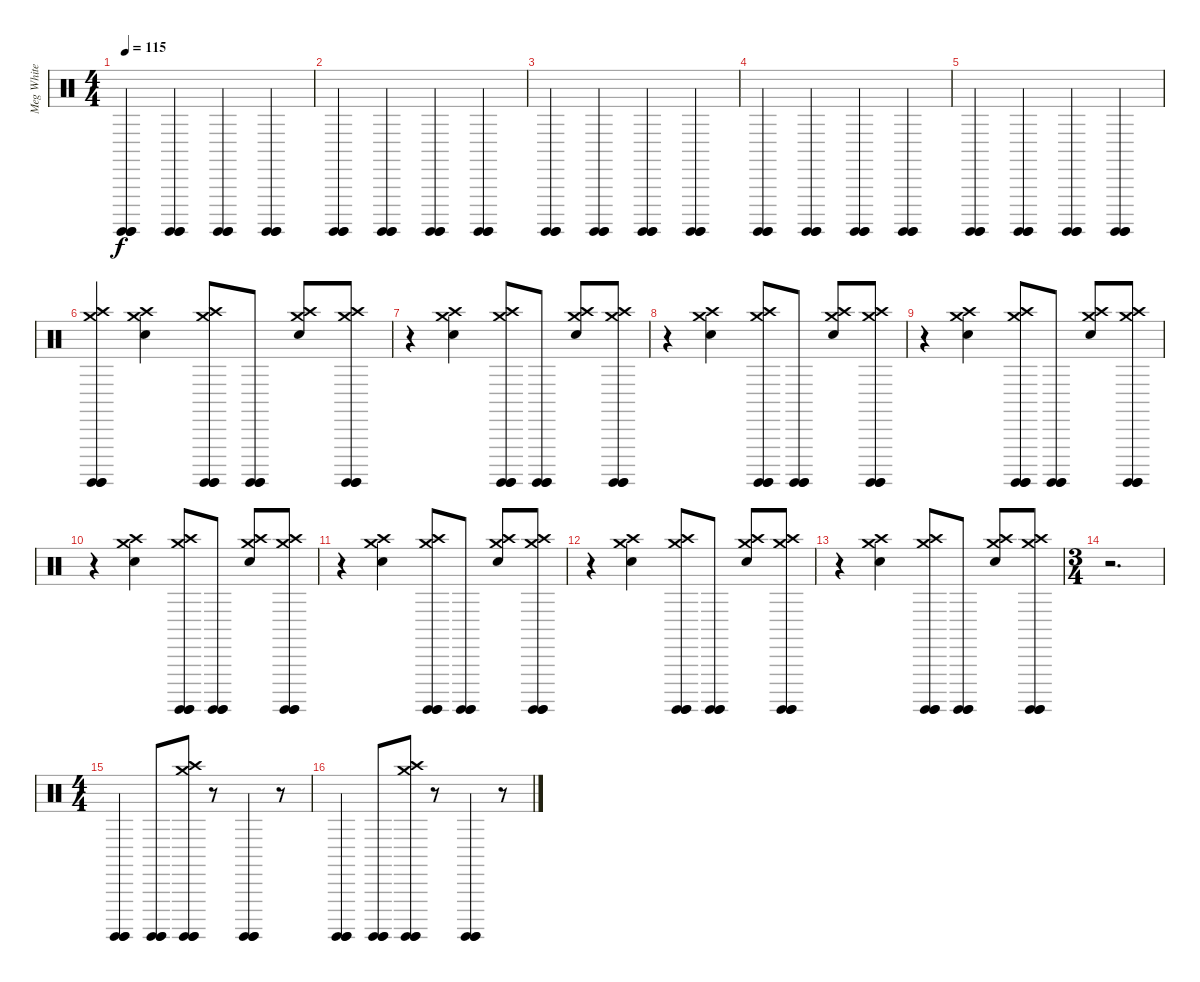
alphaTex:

\track ("Meg White" "Meg White") {instrument percussion}
\staff {score}
\articulation defaults
\ts (4 4)
\tempo 115
\clef neutral
\ks c
("Surdo (hit)" "Surdo (hit)" "Surdo (hit)").4{dy f} ("Surdo (hit)" "Surdo (hit)" "Surdo (hit)").4 ("Surdo (hit)" "Surdo (hit)" "Surdo (hit)").4 ("Surdo (hit)" "Surdo (hit)" "Surdo (hit)").4 |
("Surdo (hit)" "Surdo (hit)" "Surdo (hit)").4 ("Surdo (hit)" "Surdo (hit)" "Surdo (hit)").4 ("Surdo (hit)" "Surdo (hit)" "Surdo (hit)").4 ("Surdo (hit)" "Surdo (hit)" "Surdo (hit)").4 |
("Surdo (hit)" "Surdo (hit)" "Surdo (hit)").4 ("Surdo (hit)" "Surdo (hit)" "Surdo (hit)").4 ("Surdo (hit)" "Surdo (hit)" "Surdo (hit)").4 ("Surdo (hit)" "Surdo (hit)" "Surdo (hit)").4 |
("Surdo (hit)" "Surdo (hit)" "Surdo (hit)").4 ("Surdo (hit)" "Surdo (hit)" "Surdo (hit)").4 ("Surdo (hit)" "Surdo (hit)" "Surdo (hit)").4 ("Surdo (hit)" "Surdo (hit)" "Surdo (hit)").4 |
("Surdo (hit)" "Surdo (hit)" "Surdo (hit)").4 ("Surdo (hit)" "Surdo (hit)" "Surdo (hit)").4 ("Surdo (hit)" "Surdo (hit)" "Surdo (hit)").4 ("Surdo (hit)" "Surdo (hit)" "Surdo (hit)").4 |
("Surdo (hit)" "Surdo (hit)" "Surdo (hit)" "Crash medium (hit)" "Crash high (hit)").4 ("Electric Snare (hit)" "Crash medium (hit)" "Crash high (hit)").4 ("Surdo (hit)" "Surdo (hit)" "Surdo (hit)" "Crash medium (hit)" "Crash high (hit)").8 ("Surdo (hit)" "Surdo (hit)" "Surdo (hit)").8 ("Electric Snare (hit)" "Crash medium (hit)" "Crash high (hit)").8 ("Surdo (hit)" "Surdo (hit)" "Surdo (hit)" "Crash medium (hit)" "Crash high (hit)").8 |
r.4 ("Electric Snare (hit)" "Crash medium (hit)" "Crash high (hit)").4 ("Surdo (hit)" "Surdo (hit)" "Surdo (hit)" "Crash medium (hit)" "Crash high (hit)").8 ("Surdo (hit)" "Surdo (hit)" "Surdo (hit)").8 ("Electric Snare (hit)" "Crash medium (hit)" "Crash high (hit)").8 ("Surdo (hit)" "Surdo (hit)" "Surdo (hit)" "Crash medium (hit)" "Crash high (hit)").8 |
r.4 ("Electric Snare (hit)" "Crash medium (hit)" "Crash high (hit)").4 ("Surdo (hit)" "Surdo (hit)" "Surdo (hit)" "Crash medium (hit)" "Crash high (hit)").8 ("Surdo (hit)" "Surdo (hit)" "Surdo (hit)").8 ("Electric Snare (hit)" "Crash medium (hit)" "Crash high (hit)").8 ("Surdo (hit)" "Surdo (hit)" "Surdo (hit)" "Crash medium (hit)" "Crash high (hit)").8 |
r.4 ("Electric Snare (hit)" "Crash medium (hit)" "Crash high (hit)").4 ("Surdo (hit)" "Surdo (hit)" "Surdo (hit)" "Crash medium (hit)" "Crash high (hit)").8 ("Surdo (hit)" "Surdo (hit)" "Surdo (hit)").8 ("Electric Snare (hit)" "Crash medium (hit)" "Crash high (hit)").8 ("Surdo (hit)" "Surdo (hit)" "Surdo (hit)" "Crash medium (hit)" "Crash high (hit)").8 |
r.4 ("Electric Snare (hit)" "Crash medium (hit)" "Crash high (hit)").4 ("Surdo (hit)" "Surdo (hit)" "Surdo (hit)" "Crash medium (hit)" "Crash high (hit)").8 ("Surdo (hit)" "Surdo (hit)" "Surdo (hit)").8 ("Electric Snare (hit)" "Crash medium (hit)" "Crash high (hit)").8 ("Surdo (hit)" "Surdo (hit)" "Surdo (hit)" "Crash medium (hit)" "Crash high (hit)").8 |
r.4 ("Electric Snare (hit)" "Crash medium (hit)" "Crash high (hit)").4 ("Surdo (hit)" "Surdo (hit)" "Surdo (hit)" "Crash medium (hit)" "Crash high (hit)").8 ("Surdo (hit)" "Surdo (hit)" "Surdo (hit)").8 ("Electric Snare (hit)" "Crash medium (hit)" "Crash high (hit)").8 ("Surdo (hit)" "Surdo (hit)" "Surdo (hit)" "Crash medium (hit)" "Crash high (hit)").8 |
r.4 ("Electric Snare (hit)" "Crash medium (hit)" "Crash high (hit)").4 ("Surdo (hit)" "Surdo (hit)" "Surdo (hit)" "Crash medium (hit)" "Crash high (hit)").8 ("Surdo (hit)" "Surdo (hit)" "Surdo (hit)").8 ("Electric Snare (hit)" "Crash medium (hit)" "Crash high (hit)").8 ("Surdo (hit)" "Surdo (hit)" "Surdo (hit)" "Crash medium (hit)" "Crash high (hit)").8 |
r.4 ("Electric Snare (hit)" "Crash medium (hit)" "Crash high (hit)").4 ("Surdo (hit)" "Surdo (hit)" "Surdo (hit)" "Crash medium (hit)" "Crash high (hit)").8 ("Surdo (hit)" "Surdo (hit)" "Surdo (hit)").8 ("Electric Snare (hit)" "Crash medium (hit)" "Crash high (hit)").8 ("Surdo (hit)" "Surdo (hit)" "Surdo (hit)" "Crash medium (hit)" "Crash high (hit)").8 |
\ts (3 4)
r.2{d} |
\ts (4 4)
("Surdo (hit)" "Surdo (hit)" "Surdo (hit)").4 ("Surdo (hit)" "Surdo (hit)" "Surdo (hit)").8 ("Surdo (hit)" "Surdo (hit)" "Surdo (hit)" "Crash medium (hit)" "Crash high (hit)").8 r.8 ("Surdo (hit)" "Surdo (hit)" "Surdo (hit)").4 r.8 |
("Surdo (hit)" "Surdo (hit)" "Surdo (hit)").4 ("Surdo (hit)" "Surdo (hit)" "Surdo (hit)").8 ("Surdo (hit)" "Surdo (hit)" "Surdo (hit)" "Crash medium (hit)" "Crash high (hit)").8 r.8 ("Surdo (hit)" "Surdo (hit)" "Surdo (hit)").4 r.8
